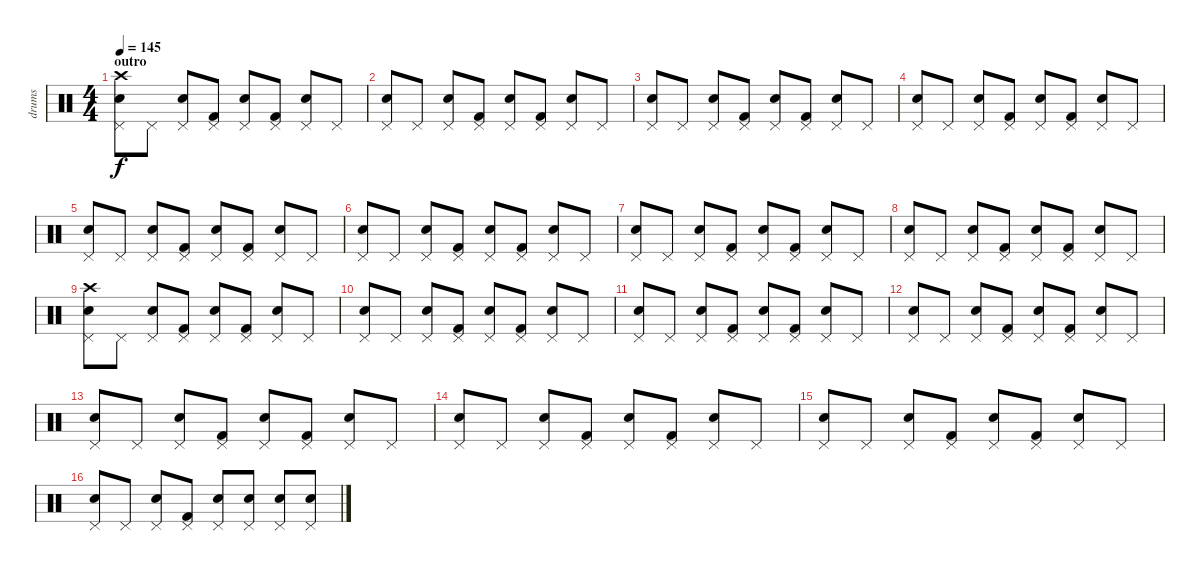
\track ("drums" "drums") {instrument percussion}
\staff {score}
\articulation defaults
\ts (4 4)
\section ("" "outro")
\tempo 145
\clef neutral
\ks c
("Crash high (hit)" "Snare (hit) 2" "Pedal Hi-Hat (hit)").8{dy f} "Pedal Hi-Hat (hit)".8 ("Snare (hit) 2" "Pedal Hi-Hat (hit)").8 ("Kick (hit) 2" "Pedal Hi-Hat (hit)").8 ("Snare (hit) 2" "Pedal Hi-Hat (hit)").8 ("Kick (hit) 2" "Pedal Hi-Hat (hit)").8 ("Snare (hit) 2" "Pedal Hi-Hat (hit)").8 "Pedal Hi-Hat (hit)".8 |
("Snare (hit) 2" "Pedal Hi-Hat (hit)").8 "Pedal Hi-Hat (hit)".8 ("Snare (hit) 2" "Pedal Hi-Hat (hit)").8 ("Kick (hit) 2" "Pedal Hi-Hat (hit)").8 ("Snare (hit) 2" "Pedal Hi-Hat (hit)").8 ("Kick (hit) 2" "Pedal Hi-Hat (hit)").8 ("Snare (hit) 2" "Pedal Hi-Hat (hit)").8 "Pedal Hi-Hat (hit)".8 |
("Snare (hit) 2" "Pedal Hi-Hat (hit)").8 "Pedal Hi-Hat (hit)".8 ("Snare (hit) 2" "Pedal Hi-Hat (hit)").8 ("Kick (hit) 2" "Pedal Hi-Hat (hit)").8 ("Snare (hit) 2" "Pedal Hi-Hat (hit)").8 ("Kick (hit) 2" "Pedal Hi-Hat (hit)").8 ("Snare (hit) 2" "Pedal Hi-Hat (hit)").8 "Pedal Hi-Hat (hit)".8 |
("Snare (hit) 2" "Pedal Hi-Hat (hit)").8 "Pedal Hi-Hat (hit)".8 ("Snare (hit) 2" "Pedal Hi-Hat (hit)").8 ("Kick (hit) 2" "Pedal Hi-Hat (hit)").8 ("Snare (hit) 2" "Pedal Hi-Hat (hit)").8 ("Kick (hit) 2" "Pedal Hi-Hat (hit)").8 ("Snare (hit) 2" "Pedal Hi-Hat (hit)").8 "Pedal Hi-Hat (hit)".8 |
("Snare (hit) 2" "Pedal Hi-Hat (hit)").8 "Pedal Hi-Hat (hit)".8 ("Snare (hit) 2" "Pedal Hi-Hat (hit)").8 ("Kick (hit) 2" "Pedal Hi-Hat (hit)").8 ("Snare (hit) 2" "Pedal Hi-Hat (hit)").8 ("Kick (hit) 2" "Pedal Hi-Hat (hit)").8 ("Snare (hit) 2" "Pedal Hi-Hat (hit)").8 "Pedal Hi-Hat (hit)".8 |
("Snare (hit) 2" "Pedal Hi-Hat (hit)").8 "Pedal Hi-Hat (hit)".8 ("Snare (hit) 2" "Pedal Hi-Hat (hit)").8 ("Kick (hit) 2" "Pedal Hi-Hat (hit)").8 ("Snare (hit) 2" "Pedal Hi-Hat (hit)").8 ("Kick (hit) 2" "Pedal Hi-Hat (hit)").8 ("Snare (hit) 2" "Pedal Hi-Hat (hit)").8 "Pedal Hi-Hat (hit)".8 |
("Snare (hit) 2" "Pedal Hi-Hat (hit)").8 "Pedal Hi-Hat (hit)".8 ("Snare (hit) 2" "Pedal Hi-Hat (hit)").8 ("Kick (hit) 2" "Pedal Hi-Hat (hit)").8 ("Snare (hit) 2" "Pedal Hi-Hat (hit)").8 ("Kick (hit) 2" "Pedal Hi-Hat (hit)").8 ("Snare (hit) 2" "Pedal Hi-Hat (hit)").8 "Pedal Hi-Hat (hit)".8 |
("Snare (hit) 2" "Pedal Hi-Hat (hit)").8 "Pedal Hi-Hat (hit)".8 ("Snare (hit) 2" "Pedal Hi-Hat (hit)").8 ("Kick (hit) 2" "Pedal Hi-Hat (hit)").8 ("Snare (hit) 2" "Pedal Hi-Hat (hit)").8 ("Kick (hit) 2" "Pedal Hi-Hat (hit)").8 ("Snare (hit) 2" "Pedal Hi-Hat (hit)").8 "Pedal Hi-Hat (hit)".8 |
("Crash high (hit)" "Snare (hit) 2" "Pedal Hi-Hat (hit)").8 "Pedal Hi-Hat (hit)".8 ("Snare (hit) 2" "Pedal Hi-Hat (hit)").8 ("Kick (hit) 2" "Pedal Hi-Hat (hit)").8 ("Snare (hit) 2" "Pedal Hi-Hat (hit)").8 ("Kick (hit) 2" "Pedal Hi-Hat (hit)").8 ("Snare (hit) 2" "Pedal Hi-Hat (hit)").8 "Pedal Hi-Hat (hit)".8 |
("Snare (hit) 2" "Pedal Hi-Hat (hit)").8 "Pedal Hi-Hat (hit)".8 ("Snare (hit) 2" "Pedal Hi-Hat (hit)").8 ("Kick (hit) 2" "Pedal Hi-Hat (hit)").8 ("Snare (hit) 2" "Pedal Hi-Hat (hit)").8 ("Kick (hit) 2" "Pedal Hi-Hat (hit)").8 ("Snare (hit) 2" "Pedal Hi-Hat (hit)").8 "Pedal Hi-Hat (hit)".8 |
("Snare (hit) 2" "Pedal Hi-Hat (hit)").8 "Pedal Hi-Hat (hit)".8 ("Snare (hit) 2" "Pedal Hi-Hat (hit)").8 ("Kick (hit) 2" "Pedal Hi-Hat (hit)").8 ("Snare (hit) 2" "Pedal Hi-Hat (hit)").8 ("Kick (hit) 2" "Pedal Hi-Hat (hit)").8 ("Snare (hit) 2" "Pedal Hi-Hat (hit)").8 "Pedal Hi-Hat (hit)".8 |
("Snare (hit) 2" "Pedal Hi-Hat (hit)").8 "Pedal Hi-Hat (hit)".8 ("Snare (hit) 2" "Pedal Hi-Hat (hit)").8 ("Kick (hit) 2" "Pedal Hi-Hat (hit)").8 ("Snare (hit) 2" "Pedal Hi-Hat (hit)").8 ("Kick (hit) 2" "Pedal Hi-Hat (hit)").8 ("Snare (hit) 2" "Pedal Hi-Hat (hit)").8 "Pedal Hi-Hat (hit)".8 |
("Snare (hit) 2" "Pedal Hi-Hat (hit)").8 "Pedal Hi-Hat (hit)".8 ("Snare (hit) 2" "Pedal Hi-Hat (hit)").8 ("Kick (hit) 2" "Pedal Hi-Hat (hit)").8 ("Snare (hit) 2" "Pedal Hi-Hat (hit)").8 ("Kick (hit) 2" "Pedal Hi-Hat (hit)").8 ("Snare (hit) 2" "Pedal Hi-Hat (hit)").8 "Pedal Hi-Hat (hit)".8 |
("Snare (hit) 2" "Pedal Hi-Hat (hit)").8 "Pedal Hi-Hat (hit)".8 ("Snare (hit) 2" "Pedal Hi-Hat (hit)").8 ("Kick (hit) 2" "Pedal Hi-Hat (hit)").8 ("Snare (hit) 2" "Pedal Hi-Hat (hit)").8 ("Kick (hit) 2" "Pedal Hi-Hat (hit)").8 ("Snare (hit) 2" "Pedal Hi-Hat (hit)").8 "Pedal Hi-Hat (hit)".8 |
("Snare (hit) 2" "Pedal Hi-Hat (hit)").8 "Pedal Hi-Hat (hit)".8 ("Snare (hit) 2" "Pedal Hi-Hat (hit)").8 ("Kick (hit) 2" "Pedal Hi-Hat (hit)").8 ("Snare (hit) 2" "Pedal Hi-Hat (hit)").8 ("Kick (hit) 2" "Pedal Hi-Hat (hit)").8 ("Snare (hit) 2" "Pedal Hi-Hat (hit)").8 "Pedal Hi-Hat (hit)".8 |
("Snare (hit) 2" "Pedal Hi-Hat (hit)").8 "Pedal Hi-Hat (hit)".8 ("Snare (hit) 2" "Pedal Hi-Hat (hit)").8 ("Kick (hit) 2" "Pedal Hi-Hat (hit)").8 ("Snare (hit) 2" "Pedal Hi-Hat (hit)").8 ("Snare (hit) 2" "Pedal Hi-Hat (hit)").8 ("Snare (hit) 2" "Pedal Hi-Hat (hit)").8 ("Snare (hit) 2" "Pedal Hi-Hat (hit)").8
